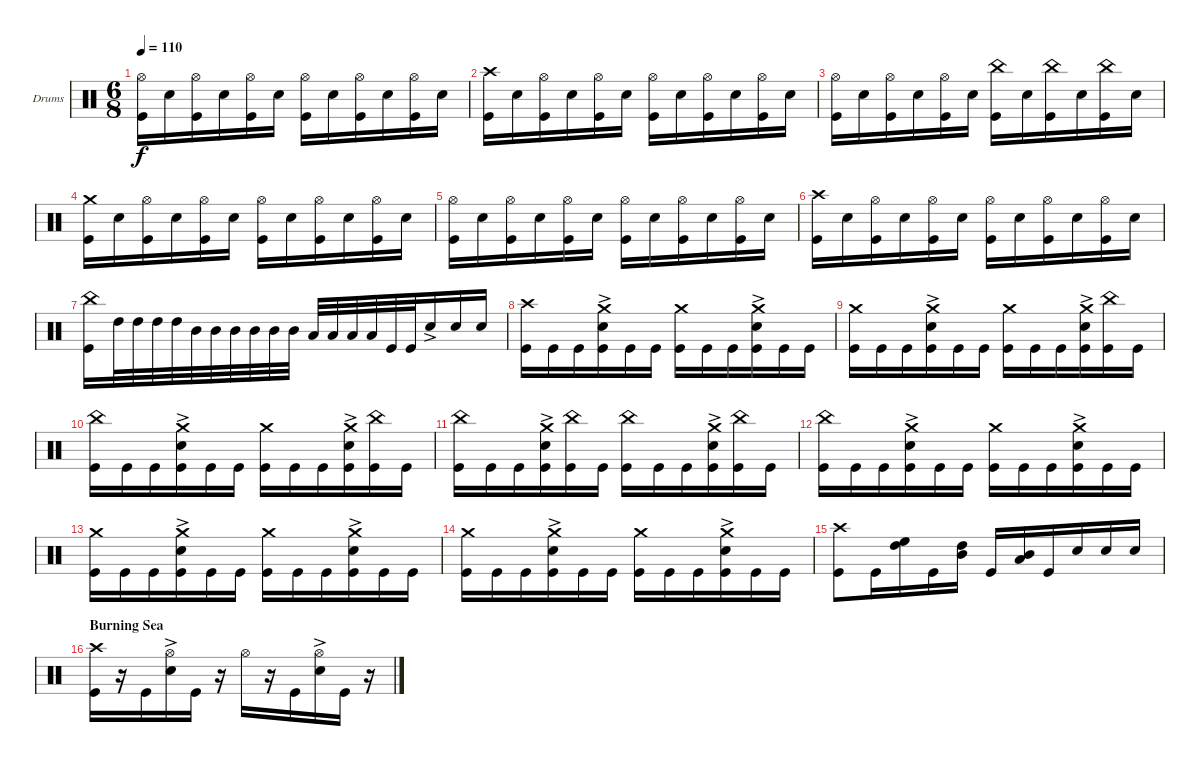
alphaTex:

\bracketExtendMode groupsimilarinstruments
\firstSystemTrackNameOrientation horizontal
\otherSystemsTrackNameOrientation horizontal
\track ("Drumkit" "Drums") {instrument percussion}
\staff {score}
\articulation defaults
\ts (6 8)
\tempo 110
\clef neutral
\ks c
("Kick (hit)" "Hi-Hat (open)").16{dy f} "Snare (hit) 2".16 ("Kick (hit)" "Hi-Hat (open)").16 "Snare (hit) 2".16 ("Kick (hit)" "Hi-Hat (open)").16 "Snare (hit) 2".16 ("Kick (hit)" "Hi-Hat (open)").16 "Snare (hit) 2".16 ("Kick (hit)" "Hi-Hat (open)").16 "Snare (hit) 2".16 ("Kick (hit)" "Hi-Hat (open)").16 "Snare (hit) 2".16 |
("Kick (hit)" "Crash high (hit)").16 "Snare (hit) 2".16 ("Kick (hit)" "Hi-Hat (open)").16 "Snare (hit) 2".16 ("Kick (hit)" "Hi-Hat (open)").16 "Snare (hit) 2".16 ("Kick (hit)" "Hi-Hat (open)").16 "Snare (hit) 2".16 ("Kick (hit)" "Hi-Hat (open)").16 "Snare (hit) 2".16 ("Kick (hit)" "Hi-Hat (open)").16 "Snare (hit) 2".16 |
("Kick (hit)" "Hi-Hat (open)").16 "Snare (hit) 2".16 ("Kick (hit)" "Hi-Hat (open)").16 "Snare (hit) 2".16 ("Kick (hit)" "Hi-Hat (open)").16 "Snare (hit) 2".16 ("Kick (hit)" "China (hit)").16 "Snare (hit) 2".16 ("Kick (hit)" "China (hit)").16 "Snare (hit) 2".16 ("Kick (hit)" "China (hit)").16 "Snare (hit) 2".16 |
("Kick (hit)" "Crash medium (hit)").16 "Snare (hit) 2".16 ("Kick (hit)" "Hi-Hat (open)").16 "Snare (hit) 2".16 ("Kick (hit)" "Hi-Hat (open)").16 "Snare (hit) 2".16 ("Kick (hit)" "Hi-Hat (open)").16 "Snare (hit) 2".16 ("Kick (hit)" "Hi-Hat (open)").16 "Snare (hit) 2".16 ("Kick (hit)" "Hi-Hat (open)").16 "Snare (hit) 2".16 |
("Kick (hit)" "Hi-Hat (open)").16 "Snare (hit) 2".16 ("Kick (hit)" "Hi-Hat (open)").16 "Snare (hit) 2".16 ("Kick (hit)" "Hi-Hat (open)").16 "Snare (hit) 2".16 ("Kick (hit)" "Hi-Hat (open)").16 "Snare (hit) 2".16 ("Kick (hit)" "Hi-Hat (open)").16 "Snare (hit) 2".16 ("Kick (hit)" "Hi-Hat (open)").16 "Snare (hit) 2".16 |
("Kick (hit)" "Crash high (hit)").16 "Snare (hit) 2".16 ("Kick (hit)" "Hi-Hat (open)").16 "Snare (hit) 2".16 ("Kick (hit)" "Hi-Hat (open)").16 "Snare (hit) 2".16 ("Kick (hit)" "Hi-Hat (open)").16 "Snare (hit) 2".16 ("Kick (hit)" "Hi-Hat (open)").16 "Snare (hit) 2".16 ("Kick (hit)" "Hi-Hat (open)").16 "Snare (hit) 2".16 |
("Kick (hit)" "China (hit)").16 "High Tom (hit)".32 "High Tom (hit)".32 "High Tom (hit)".32 "High Tom (hit)".32 "Mid Tom (hit)".32 "Mid Tom (hit)".32 "Mid Tom (hit)".32 "Mid Tom (hit)".32 "Mid Tom (hit)".32 "Mid Tom (hit)".32 "Low Tom (hit)".32 "Low Tom (hit)".32 "Low Tom (hit)".32 "Low Tom (hit)".32 "Kick (hit)".32 "Kick (hit)".32 "Snare (hit) 2"{ac}.16 "Snare (hit) 2".16 "Snare (hit) 2".16 |
("Kick (hit)" "Crash high (hit)").16 "Kick (hit)".16 "Kick (hit)".16 ("Kick (hit)" "Snare (hit) 2"{ac} "Crash medium (hit)").16 "Kick (hit)".16 "Kick (hit)".16 ("Kick (hit)" "Crash medium (hit)").16 "Kick (hit)".16 "Kick (hit)".16 ("Kick (hit)" "Snare (hit) 2"{ac} "Crash medium (hit)").16 "Kick (hit)".16 "Kick (hit)".16 |
("Kick (hit)" "Crash medium (hit)").16 "Kick (hit)".16 "Kick (hit)".16 ("Kick (hit)" "Snare (hit) 2"{ac} "Crash medium (hit)").16 "Kick (hit)".16 "Kick (hit)".16 ("Kick (hit)" "Crash medium (hit)").16 "Kick (hit)".16 "Kick (hit)".16 ("Kick (hit)" "Snare (hit) 2"{ac} "Crash medium (hit)").16 ("Kick (hit)" "China (hit)").16 "Kick (hit)".16 |
("Kick (hit)" "China (hit)").16 "Kick (hit)".16 "Kick (hit)".16 ("Kick (hit)" "Snare (hit) 2"{ac} "Crash medium (hit)").16 "Kick (hit)".16 "Kick (hit)".16 ("Kick (hit)" "Crash medium (hit)").16 "Kick (hit)".16 "Kick (hit)".16 ("Kick (hit)" "Snare (hit) 2"{ac} "Crash medium (hit)").16 ("Kick (hit)" "China (hit)").16 "Kick (hit)".16 |
("Kick (hit)" "China (hit)").16 "Kick (hit)".16 "Kick (hit)".16 ("Kick (hit)" "Snare (hit) 2"{ac} "Crash medium (hit)").16 ("Kick (hit)" "China (hit)").16 "Kick (hit)".16 ("Kick (hit)" "China (hit)").16 "Kick (hit)".16 "Kick (hit)".16 ("Kick (hit)" "Snare (hit) 2"{ac} "Crash medium (hit)").16 ("Kick (hit)" "China (hit)").16 "Kick (hit)".16 |
("Kick (hit)" "China (hit)").16 "Kick (hit)".16 "Kick (hit)".16 ("Kick (hit)" "Snare (hit) 2"{ac} "Crash medium (hit)").16 "Kick (hit)".16 "Kick (hit)".16 ("Kick (hit)" "Crash medium (hit)").16 "Kick (hit)".16 "Kick (hit)".16 ("Kick (hit)" "Snare (hit) 2"{ac} "Crash medium (hit)").16 "Kick (hit)".16 "Kick (hit)".16 |
("Kick (hit)" "Crash medium (hit)").16 "Kick (hit)".16 "Kick (hit)".16 ("Kick (hit)" "Snare (hit) 2"{ac} "Crash medium (hit)").16 "Kick (hit)".16 "Kick (hit)".16 ("Kick (hit)" "Crash medium (hit)").16 "Kick (hit)".16 "Kick (hit)".16 ("Kick (hit)" "Snare (hit) 2"{ac} "Crash medium (hit)").16 "Kick (hit)".16 "Kick (hit)".16 |
("Kick (hit)" "Crash medium (hit)").16 "Kick (hit)".16 "Kick (hit)".16 ("Kick (hit)" "Snare (hit) 2"{ac} "Crash medium (hit)").16 "Kick (hit)".16 "Kick (hit)".16 ("Kick (hit)" "Crash medium (hit)").16 "Kick (hit)".16 "Kick (hit)".16 ("Kick (hit)" "Snare (hit) 2"{ac} "Crash medium (hit)").16 "Kick (hit)".16 "Kick (hit)".16 |
("Kick (hit)" "Crash high (hit)").8 "Kick (hit)".16 ("High Floor Tom (hit)" "High Tom (hit)").16 "Kick (hit)".16 ("High Tom (hit)" "Mid Tom (hit)").16 "Kick (hit)".16 ("Mid Tom (hit)" "Low Tom (hit)").16 "Kick (hit)".16 "Snare (hit) 2".16 "Snare (hit) 2".16 "Snare (hit) 2".16 |
\section ("" "Burning Sea")
("Kick (hit)" "Crash high (hit)").16 r.16 "Kick (hit)".16 ("Snare (hit) 2"{ac} "Hi-Hat (open)").16 "Kick (hit)".16 r.16 "Hi-Hat (open)".16 r.16 "Kick (hit)".16 ("Snare (hit) 2"{ac} "Hi-Hat (open)").16 "Kick (hit)".16 r.16
